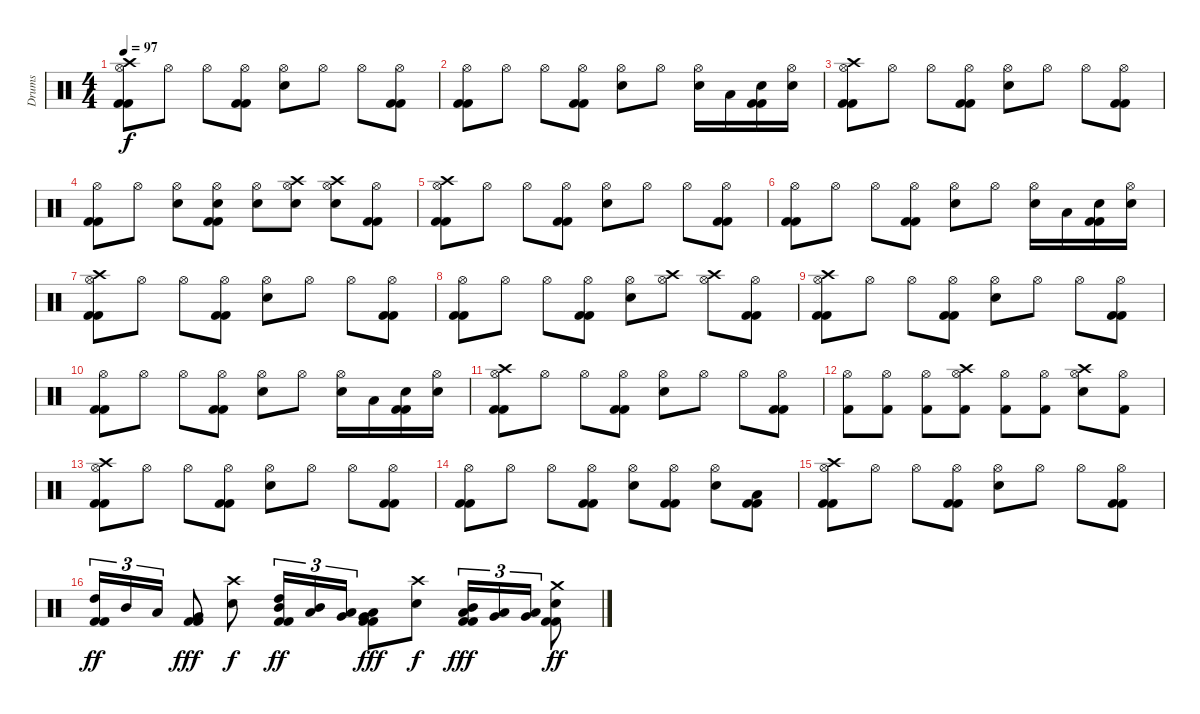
\track ("Drums" "Drums") {instrument percussion}
\staff {score}
\articulation defaults
\ts (4 4)
\tempo 97
\clef neutral
\ks c
("Hi-Hat (open)" "Crash high (hit)" "Kick (hit) 2" "Kick (hit) 2").8{dy f} "Hi-Hat (open)".8 "Hi-Hat (open)".8 ("Hi-Hat (open)" "Kick (hit) 2" "Kick (hit) 2").8 ("Hi-Hat (open)" "Electric Snare (hit)").8 "Hi-Hat (open)".8 "Hi-Hat (open)".8 ("Hi-Hat (open)" "Kick (hit) 2" "Kick (hit) 2").8 |
("Hi-Hat (open)" "Kick (hit) 2" "Kick (hit) 2").8 "Hi-Hat (open)".8 "Hi-Hat (open)".8 ("Hi-Hat (open)" "Kick (hit) 2" "Kick (hit) 2").8 ("Hi-Hat (open)" "Electric Snare (hit)").8 "Hi-Hat (open)".8 ("Hi-Hat (open)" "Electric Snare (hit)").16 "Low Tom (hit)".16 ("Electric Snare (hit)" "Kick (hit) 2" "Kick (hit) 2").16 ("Hi-Hat (open)" "Electric Snare (hit)").16 |
("Hi-Hat (open)" "Crash high (hit)" "Kick (hit) 2" "Kick (hit) 2").8 "Hi-Hat (open)".8 "Hi-Hat (open)".8 ("Hi-Hat (open)" "Kick (hit) 2" "Kick (hit) 2").8 ("Hi-Hat (open)" "Electric Snare (hit)").8 "Hi-Hat (open)".8 "Hi-Hat (open)".8 ("Hi-Hat (open)" "Kick (hit) 2" "Kick (hit) 2").8 |
("Hi-Hat (open)" "Kick (hit) 2" "Kick (hit) 2").8 "Hi-Hat (open)".8 ("Hi-Hat (open)" "Snare (hit) 2").8 ("Hi-Hat (open)" "Kick (hit) 2" "Snare (hit) 2" "Kick (hit) 2").8 ("Hi-Hat (open)" "Electric Snare (hit)").8 ("Hi-Hat (open)" "Crash high (hit)" "Snare (hit) 2").8 ("Hi-Hat (open)" "Crash high (hit)" "Snare (hit) 2").8 ("Hi-Hat (open)" "Kick (hit) 2" "Kick (hit) 2").8 |
("Hi-Hat (open)" "Crash high (hit)" "Kick (hit) 2" "Kick (hit) 2").8 "Hi-Hat (open)".8 "Hi-Hat (open)".8 ("Hi-Hat (open)" "Kick (hit) 2" "Kick (hit) 2").8 ("Hi-Hat (open)" "Electric Snare (hit)").8 "Hi-Hat (open)".8 "Hi-Hat (open)".8 ("Hi-Hat (open)" "Kick (hit) 2" "Kick (hit) 2").8 |
("Hi-Hat (open)" "Kick (hit) 2" "Kick (hit) 2").8 "Hi-Hat (open)".8 "Hi-Hat (open)".8 ("Hi-Hat (open)" "Kick (hit) 2" "Kick (hit) 2").8 ("Hi-Hat (open)" "Electric Snare (hit)").8 "Hi-Hat (open)".8 ("Hi-Hat (open)" "Electric Snare (hit)").16 "Low Tom (hit)".16 ("Electric Snare (hit)" "Kick (hit) 2" "Kick (hit) 2").16 ("Hi-Hat (open)" "Electric Snare (hit)").16 |
("Hi-Hat (open)" "Crash high (hit)" "Kick (hit) 2" "Kick (hit) 2").8 "Hi-Hat (open)".8 "Hi-Hat (open)".8 ("Hi-Hat (open)" "Kick (hit) 2" "Kick (hit) 2").8 ("Hi-Hat (open)" "Electric Snare (hit)").8 "Hi-Hat (open)".8 "Hi-Hat (open)".8 ("Hi-Hat (open)" "Kick (hit) 2" "Kick (hit) 2").8 |
("Hi-Hat (open)" "Kick (hit) 2" "Kick (hit) 2").8 "Hi-Hat (open)".8 "Hi-Hat (open)".8 ("Hi-Hat (open)" "Kick (hit) 2" "Kick (hit) 2").8 ("Hi-Hat (open)" "Electric Snare (hit)").8 ("Hi-Hat (open)" "Crash high (hit)").8 ("Hi-Hat (open)" "Crash high (hit)").8 ("Hi-Hat (open)" "Kick (hit) 2" "Kick (hit) 2").8 |
("Hi-Hat (open)" "Crash high (hit)" "Kick (hit) 2" "Kick (hit) 2").8 "Hi-Hat (open)".8 "Hi-Hat (open)".8 ("Hi-Hat (open)" "Kick (hit) 2" "Kick (hit) 2").8 ("Hi-Hat (open)" "Electric Snare (hit)").8 "Hi-Hat (open)".8 "Hi-Hat (open)".8 ("Hi-Hat (open)" "Kick (hit) 2" "Kick (hit) 2").8 |
("Hi-Hat (open)" "Kick (hit) 2" "Kick (hit) 2").8 "Hi-Hat (open)".8 "Hi-Hat (open)".8 ("Hi-Hat (open)" "Kick (hit) 2" "Kick (hit) 2").8 ("Hi-Hat (open)" "Electric Snare (hit)").8 "Hi-Hat (open)".8 ("Hi-Hat (open)" "Electric Snare (hit)").16 "Low Tom (hit)".16 ("Electric Snare (hit)" "Kick (hit) 2" "Kick (hit) 2").16 ("Hi-Hat (open)" "Electric Snare (hit)").16 |
("Hi-Hat (open)" "Crash high (hit)" "Kick (hit) 2" "Kick (hit) 2").8 "Hi-Hat (open)".8 "Hi-Hat (open)".8 ("Hi-Hat (open)" "Kick (hit) 2" "Kick (hit) 2").8 ("Hi-Hat (open)" "Electric Snare (hit)").8 "Hi-Hat (open)".8 "Hi-Hat (open)".8 ("Hi-Hat (open)" "Kick (hit) 2" "Kick (hit) 2").8 |
("Hi-Hat (open)" "Kick (hit) 2").8 ("Hi-Hat (open)" "Kick (hit) 2").8 ("Hi-Hat (open)" "Kick (hit) 2").8 ("Hi-Hat (open)" "Crash high (hit)" "Kick (hit) 2").8 ("Hi-Hat (open)" "Kick (hit) 2").8 ("Hi-Hat (open)" "Kick (hit) 2").8 ("Hi-Hat (open)" "Crash high (hit)" "Electric Snare (hit)").8 ("Hi-Hat (open)" "Kick (hit) 2").8 |
("Hi-Hat (open)" "Crash high (hit)" "Kick (hit) 2" "Kick (hit) 2").8 "Hi-Hat (open)".8 "Hi-Hat (open)".8 ("Hi-Hat (open)" "Kick (hit) 2" "Kick (hit) 2").8 ("Hi-Hat (open)" "Electric Snare (hit)").8 "Hi-Hat (open)".8 "Hi-Hat (open)".8 ("Hi-Hat (open)" "Kick (hit) 2" "Kick (hit) 2").8 |
("Hi-Hat (open)" "Kick (hit) 2" "Kick (hit) 2").8 "Hi-Hat (open)".8 "Hi-Hat (open)".8 ("Hi-Hat (open)" "Kick (hit) 2" "Kick (hit) 2").8 ("Hi-Hat (open)" "Electric Snare (hit)").8 ("Hi-Hat (open)" "Kick (hit) 2" "Kick (hit) 2").8 ("Hi-Hat (open)" "Electric Snare (hit)").8 ("Low Tom (hit)" "Kick (hit) 2" "Kick (hit) 2").8 |
("Hi-Hat (open)" "Crash high (hit)" "Kick (hit) 2" "Kick (hit) 2").8 "Hi-Hat (open)".8 "Hi-Hat (open)".8 ("Hi-Hat (open)" "Kick (hit) 2" "Kick (hit) 2").8 ("Hi-Hat (open)" "Electric Snare (hit)").8 "Hi-Hat (open)".8 "Hi-Hat (open)".8 ("Hi-Hat (open)" "Kick (hit) 2" "Kick (hit) 2").8 |
("High Tom (hit)" "Kick (hit) 2" "Kick (hit) 2").16{tu (3 2) dy ff} "Mid Tom (hit)".16{tu (3 2)} "Low Tom (hit)".16{tu (3 2)} ("Very Low Tom (hit)" "Kick (hit) 2" "Kick (hit) 2").8{dy fff} ("Crash high (hit)" "Electric Snare (hit)").8{dy f} ("High Tom (hit)" "Mid Tom (hit)" "Kick (hit) 2" "Kick (hit) 2").16{tu (3 2) dy ff} ("Mid Tom (hit)" "Low Tom (hit)").16{tu (3 2)} ("Low Tom (hit)" "Very Low Tom (hit)").16{tu (3 2)} ("Very Low Tom (hit)" "Low Floor Tom (hit)" "Kick (hit) 2" "Kick (hit) 2").8{dy fff} ("Crash high (hit)" "Electric Snare (hit)").8{dy f} ("Mid Tom (hit)" "Low Tom (hit)" "Kick (hit) 2" "Kick (hit) 2").16{tu (3 2) dy fff} ("Low Tom (hit)" "Very Low Tom (hit)").16{tu (3 2)} ("Very Low Tom (hit)" "Low Floor Tom (hit)").16{tu (3 2)} ("Crash medium (hit)" "Electric Snare (hit)" "Kick (hit) 2" "Kick (hit) 2").8{dy ff}
